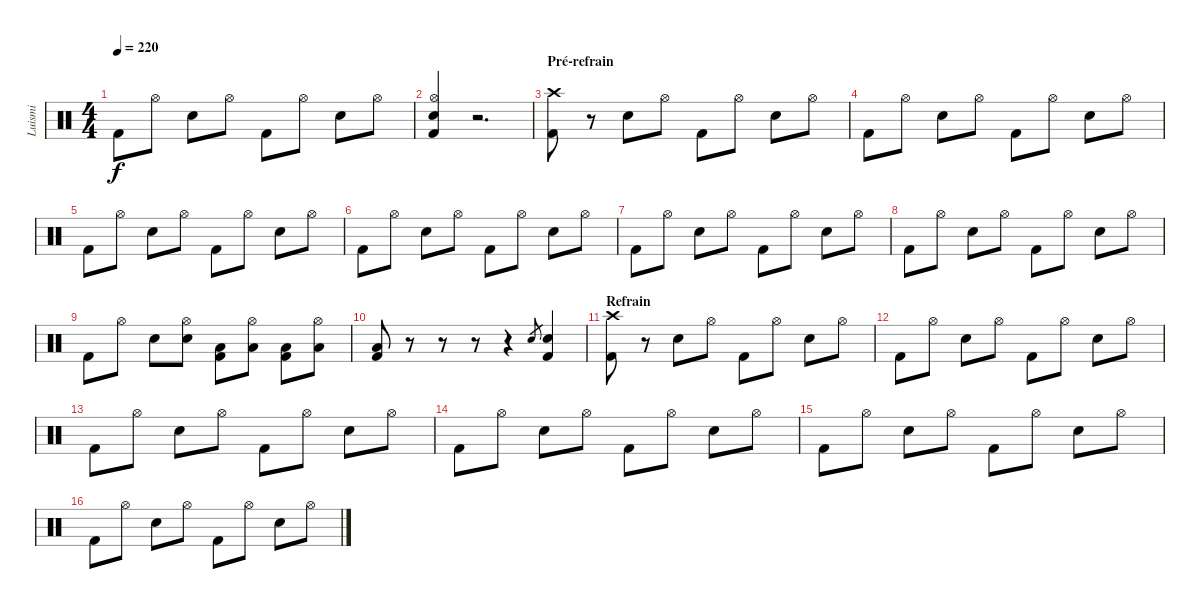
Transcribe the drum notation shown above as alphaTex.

\track ("Luismi" "Luismi") {instrument percussion}
\staff {score}
\articulation defaults
\ts (4 4)
\tempo 220
\clef neutral
\ks c "Kick (hit) 2".8{dy f} "Hi-Hat (open)".8 "Snare (hit) 2".8 "Hi-Hat (open)".8 "Kick (hit) 2".8 "Hi-Hat (open)".8 "Snare (hit) 2".8 "Hi-Hat (open)".8
|
("Hi-Hat (open)" "Snare (hit) 2" "Kick (hit) 2").4 r.2{d} |
\section ("" "Pré-refrain")
("Crash high (hit)" "Kick (hit) 2").8 r.8 "Snare (hit) 2".8 "Hi-Hat (open)".8 "Kick (hit) 2".8 "Hi-Hat (open)".8 "Snare (hit) 2".8 "Hi-Hat (open)".8 |
"Kick (hit) 2".8 "Hi-Hat (open)".8 "Snare (hit) 2".8 "Hi-Hat (open)".8 "Kick (hit) 2".8 "Hi-Hat (open)".8 "Snare (hit) 2".8 "Hi-Hat (open)".8 |
"Kick (hit) 2".8 "Hi-Hat (open)".8 "Snare (hit) 2".8 "Hi-Hat (open)".8 "Kick (hit) 2".8 "Hi-Hat (open)".8 "Snare (hit) 2".8 "Hi-Hat (open)".8 |
"Kick (hit) 2".8 "Hi-Hat (open)".8 "Snare (hit) 2".8 "Hi-Hat (open)".8 "Kick (hit) 2".8 "Hi-Hat (open)".8 "Snare (hit) 2".8 "Hi-Hat (open)".8 |
"Kick (hit) 2".8 "Hi-Hat (open)".8 "Snare (hit) 2".8 "Hi-Hat (open)".8 "Kick (hit) 2".8 "Hi-Hat (open)".8 "Snare (hit) 2".8 "Hi-Hat (open)".8 |
"Kick (hit) 2".8 "Hi-Hat (open)".8 "Snare (hit) 2".8 "Hi-Hat (open)".8 "Kick (hit) 2".8 "Hi-Hat (open)".8 "Snare (hit) 2".8 "Hi-Hat (open)".8 |
"Kick (hit) 2".8 "Hi-Hat (open)".8 "Snare (hit) 2".8 ("Hi-Hat (open)" "Snare (hit) 2").8 ("Low Tom (hit)" "Kick (hit) 2").8 ("Hi-Hat (open)" "Low Tom (hit)").8 ("Low Floor Tom (hit)" "Kick (hit) 2").8 ("Hi-Hat (open)" "Low Floor Tom (hit)").8 |
("Low Floor Tom (hit)" "Kick (hit) 2").8 r.8 r.8 r.8 r.4 "Snare (hit) 2".8{gr} ("Snare (hit) 2" "Kick (hit) 2").4 |
\section ("" "Refrain")
("Crash high (hit)" "Kick (hit) 2").8 r.8 "Snare (hit) 2".8 "Hi-Hat (open)".8 "Kick (hit) 2".8 "Hi-Hat (open)".8 "Snare (hit) 2".8 "Hi-Hat (open)".8 |
"Kick (hit) 2".8 "Hi-Hat (open)".8 "Snare (hit) 2".8 "Hi-Hat (open)".8 "Kick (hit) 2".8 "Hi-Hat (open)".8 "Snare (hit) 2".8 "Hi-Hat (open)".8 |
"Kick (hit) 2".8 "Hi-Hat (open)".8 "Snare (hit) 2".8 "Hi-Hat (open)".8 "Kick (hit) 2".8 "Hi-Hat (open)".8 "Snare (hit) 2".8 "Hi-Hat (open)".8 |
"Kick (hit) 2".8 "Hi-Hat (open)".8 "Snare (hit) 2".8 "Hi-Hat (open)".8 "Kick (hit) 2".8 "Hi-Hat (open)".8 "Snare (hit) 2".8 "Hi-Hat (open)".8 |
"Kick (hit) 2".8 "Hi-Hat (open)".8 "Snare (hit) 2".8 "Hi-Hat (open)".8 "Kick (hit) 2".8 "Hi-Hat (open)".8 "Snare (hit) 2".8 "Hi-Hat (open)".8 |
"Kick (hit) 2".8 "Hi-Hat (open)".8 "Snare (hit) 2".8 "Hi-Hat (open)".8 "Kick (hit) 2".8 "Hi-Hat (open)".8 "Snare (hit) 2".8 "Hi-Hat (open)".8
